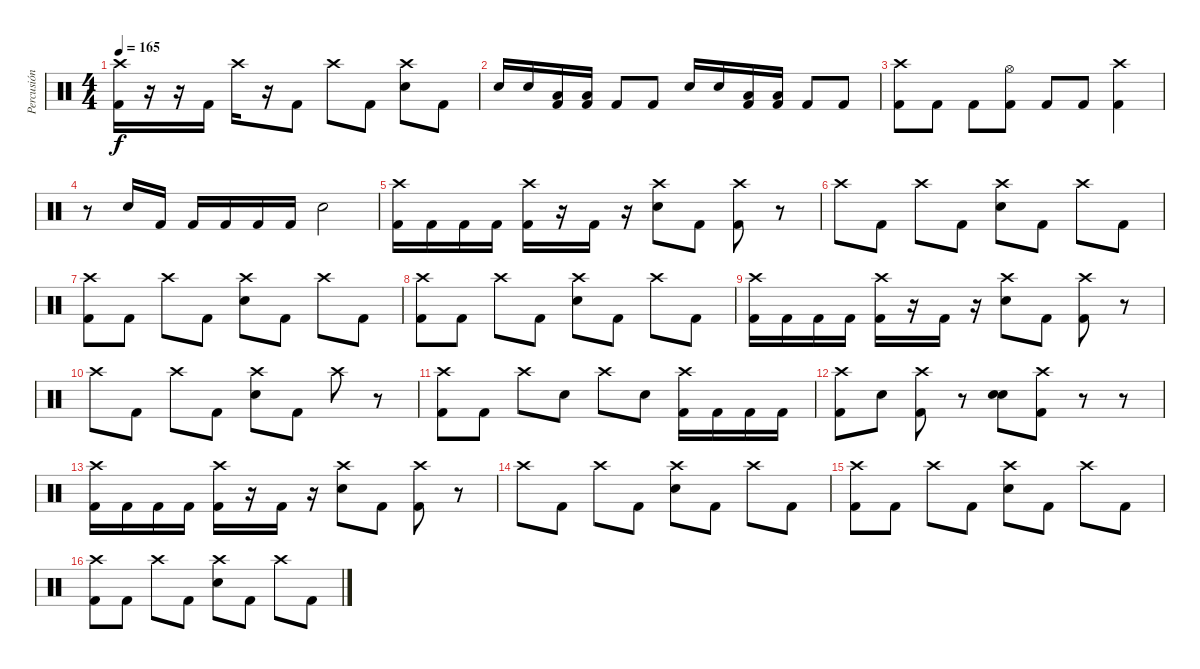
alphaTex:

\track ("Percusión" "Percusión") {instrument percussion}
\staff {score}
\articulation defaults
\ts (4 4)
\tempo 165
\clef neutral
\ks c
("Crash high (hit)" "Kick (hit) 2").16{dy f} r.16 r.16 "Kick (hit) 2".16 "Crash high (hit)".16 r.16 "Kick (hit) 2".8 "Crash high (hit)".8 "Kick (hit) 2".8 ("Crash high (hit)" "Electric Snare (hit)").8 "Kick (hit) 2".8 |
"Electric Snare (hit)".16 "Electric Snare (hit)".16 ("Low Tom (hit)" "Kick (hit) 2").16 ("Low Tom (hit)" "Kick (hit) 2").16 "Kick (hit) 2".8 "Kick (hit) 2".8 "Electric Snare (hit)".16 "Electric Snare (hit)".16 ("Low Tom (hit)" "Kick (hit) 2").16 ("Low Tom (hit)" "Kick (hit) 2").16 "Kick (hit) 2".8 "Kick (hit) 2".8 |
("Crash high (hit)" "Kick (hit) 2").8 "Kick (hit) 2".8 "Kick (hit) 2".8 ("Hi-Hat (open)" "Kick (hit) 2").8 "Kick (hit) 2".8 "Kick (hit) 2".8 ("Crash high (hit)" "Kick (hit) 2").4 |
r.8 "Electric Snare (hit)".16 "Kick (hit) 2".16 "Kick (hit) 2".16 "Kick (hit) 2".16 "Kick (hit) 2".16 "Kick (hit) 2".16 "Electric Snare (hit)".2 |
("Crash high (hit)" "Kick (hit) 2").16 "Kick (hit) 2".16 "Kick (hit) 2".16 "Kick (hit) 2".16 ("Crash high (hit)" "Kick (hit) 2").16 r.16 "Kick (hit) 2".16 r.16 ("Crash high (hit)" "Electric Snare (hit)").8 "Kick (hit) 2".8 ("Crash high (hit)" "Kick (hit) 2").8 r.8 |
"Crash high (hit)".8 "Kick (hit) 2".8 "Crash high (hit)".8 "Kick (hit) 2".8 ("Crash high (hit)" "Electric Snare (hit)").8 "Kick (hit) 2".8 "Crash high (hit)".8 "Kick (hit) 2".8 |
("Crash high (hit)" "Kick (hit) 2").8 "Kick (hit) 2".8 "Crash high (hit)".8 "Kick (hit) 2".8 ("Crash high (hit)" "Electric Snare (hit)").8 "Kick (hit) 2".8 "Crash high (hit)".8 "Kick (hit) 2".8 |
("Crash high (hit)" "Kick (hit) 2").8 "Kick (hit) 2".8 "Crash high (hit)".8 "Kick (hit) 2".8 ("Crash high (hit)" "Electric Snare (hit)").8 "Kick (hit) 2".8 "Crash high (hit)".8 "Kick (hit) 2".8 |
("Crash high (hit)" "Kick (hit) 2").16 "Kick (hit) 2".16 "Kick (hit) 2".16 "Kick (hit) 2".16 ("Crash high (hit)" "Kick (hit) 2").16 r.16 "Kick (hit) 2".16 r.16 ("Crash high (hit)" "Electric Snare (hit)").8 "Kick (hit) 2".8 ("Crash high (hit)" "Kick (hit) 2").8 r.8 |
"Crash high (hit)".8 "Kick (hit) 2".8 "Crash high (hit)".8 "Kick (hit) 2".8 ("Crash high (hit)" "Electric Snare (hit)").8 "Kick (hit) 2".8 "Crash high (hit)".8 r.8 |
("Crash high (hit)" "Kick (hit) 2").8 "Kick (hit) 2".8 "Crash high (hit)".8 "Electric Snare (hit)".8 "Crash high (hit)".8 "Electric Snare (hit)".8 ("Crash high (hit)" "Kick (hit) 2").16 "Kick (hit) 2".16 "Kick (hit) 2".16 "Kick (hit) 2".16 |
("Crash high (hit)" "Kick (hit) 2").8 "Electric Snare (hit)".8 ("Crash high (hit)" "Kick (hit) 2").8 r.8 ("Electric Snare (hit)" "Electric Snare (hit)").8{bu 60} ("Crash high (hit)" "Kick (hit) 2").8 r.8 r.8 |
("Crash high (hit)" "Kick (hit) 2").16 "Kick (hit) 2".16 "Kick (hit) 2".16 "Kick (hit) 2".16 ("Crash high (hit)" "Kick (hit) 2").16 r.16 "Kick (hit) 2".16 r.16 ("Crash high (hit)" "Electric Snare (hit)").8 "Kick (hit) 2".8 ("Crash high (hit)" "Kick (hit) 2").8 r.8 |
"Crash high (hit)".8 "Kick (hit) 2".8 "Crash high (hit)".8 "Kick (hit) 2".8 ("Crash high (hit)" "Electric Snare (hit)").8 "Kick (hit) 2".8 "Crash high (hit)".8 "Kick (hit) 2".8 |
("Crash high (hit)" "Kick (hit) 2").8 "Kick (hit) 2".8 "Crash high (hit)".8 "Kick (hit) 2".8 ("Crash high (hit)" "Electric Snare (hit)").8 "Kick (hit) 2".8 "Crash high (hit)".8 "Kick (hit) 2".8 |
("Crash high (hit)" "Kick (hit) 2").8 "Kick (hit) 2".8 "Crash high (hit)".8 "Kick (hit) 2".8 ("Crash high (hit)" "Electric Snare (hit)").8 "Kick (hit) 2".8 "Crash high (hit)".8 "Kick (hit) 2".8
